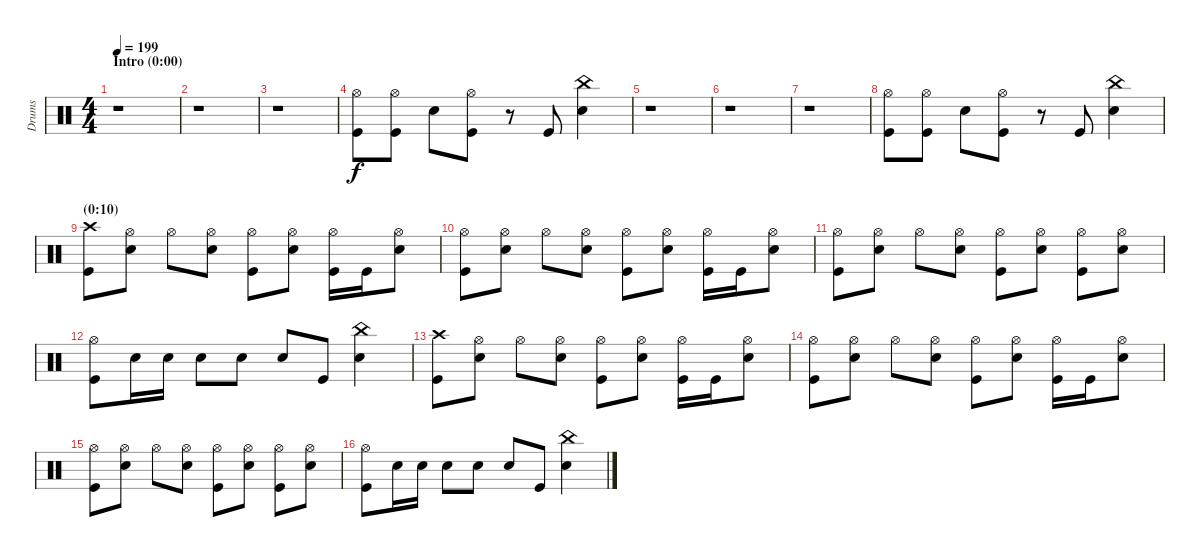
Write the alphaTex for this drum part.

\track ("Drums" "Drums") {instrument percussion}
\staff {score}
\articulation defaults
\ts (4 4)
\section ("" "Intro (0:00)")
\tempo 199
\clef neutral
\ks c
r.1{dy f} |
r.1 |
r.1 |
("Hi-Hat (open)" "Kick (hit)").8 ("Hi-Hat (open)" "Kick (hit)").8 "Snare (hit) 2".8 ("Hi-Hat (open)" "Kick (hit)").8 r.8 "Kick (hit)".8 ("China (hit)" "Snare (hit) 2").4 |
r.1 |
r.1 |
r.1 |
("Hi-Hat (open)" "Kick (hit)").8 ("Hi-Hat (open)" "Kick (hit)").8 "Snare (hit) 2".8 ("Hi-Hat (open)" "Kick (hit)").8 r.8 "Kick (hit)".8 ("China (hit)" "Snare (hit) 2").4 |
\section ("" "(0:10)")
("Crash high (hit)" "Kick (hit)").8 ("Hi-Hat (open)" "Snare (hit) 2").8 "Hi-Hat (open)".8 ("Hi-Hat (open)" "Snare (hit) 2").8 ("Hi-Hat (open)" "Kick (hit)").8 ("Hi-Hat (open)" "Snare (hit) 2").8 ("Hi-Hat (open)" "Kick (hit)").16 "Kick (hit)".16 ("Hi-Hat (open)" "Snare (hit) 2").8 |
("Hi-Hat (open)" "Kick (hit)").8 ("Hi-Hat (open)" "Snare (hit) 2").8 "Hi-Hat (open)".8 ("Hi-Hat (open)" "Snare (hit) 2").8 ("Hi-Hat (open)" "Kick (hit)").8 ("Hi-Hat (open)" "Snare (hit) 2").8 ("Hi-Hat (open)" "Kick (hit)").16 "Kick (hit)".16 ("Hi-Hat (open)" "Snare (hit) 2").8 |
("Hi-Hat (open)" "Kick (hit)").8 ("Hi-Hat (open)" "Snare (hit) 2").8 "Hi-Hat (open)".8 ("Hi-Hat (open)" "Snare (hit) 2").8 ("Hi-Hat (open)" "Kick (hit)").8 ("Hi-Hat (open)" "Snare (hit) 2").8 ("Hi-Hat (open)" "Kick (hit)").8 ("Hi-Hat (open)" "Snare (hit) 2").8 |
("Hi-Hat (open)" "Kick (hit)").8 "Snare (hit) 2".16 "Snare (hit) 2".16 "Snare (hit) 2".8 "Snare (hit) 2".8 "Snare (hit) 2".8 "Kick (hit)".8 ("China (hit)" "Snare (hit) 2").4 |
("Crash high (hit)" "Kick (hit)").8 ("Hi-Hat (open)" "Snare (hit) 2").8 "Hi-Hat (open)".8 ("Hi-Hat (open)" "Snare (hit) 2").8 ("Hi-Hat (open)" "Kick (hit)").8 ("Hi-Hat (open)" "Snare (hit) 2").8 ("Hi-Hat (open)" "Kick (hit)").16 "Kick (hit)".16 ("Hi-Hat (open)" "Snare (hit) 2").8 |
("Hi-Hat (open)" "Kick (hit)").8 ("Hi-Hat (open)" "Snare (hit) 2").8 "Hi-Hat (open)".8 ("Hi-Hat (open)" "Snare (hit) 2").8 ("Hi-Hat (open)" "Kick (hit)").8 ("Hi-Hat (open)" "Snare (hit) 2").8 ("Hi-Hat (open)" "Kick (hit)").16 "Kick (hit)".16 ("Hi-Hat (open)" "Snare (hit) 2").8 |
("Hi-Hat (open)" "Kick (hit)").8 ("Hi-Hat (open)" "Snare (hit) 2").8 "Hi-Hat (open)".8 ("Hi-Hat (open)" "Snare (hit) 2").8 ("Hi-Hat (open)" "Kick (hit)").8 ("Hi-Hat (open)" "Snare (hit) 2").8 ("Hi-Hat (open)" "Kick (hit)").8 ("Hi-Hat (open)" "Snare (hit) 2").8 |
("Hi-Hat (open)" "Kick (hit)").8 "Snare (hit) 2".16 "Snare (hit) 2".16 "Snare (hit) 2".8 "Snare (hit) 2".8 "Snare (hit) 2".8 "Kick (hit)".8 ("China (hit)" "Snare (hit) 2").4
